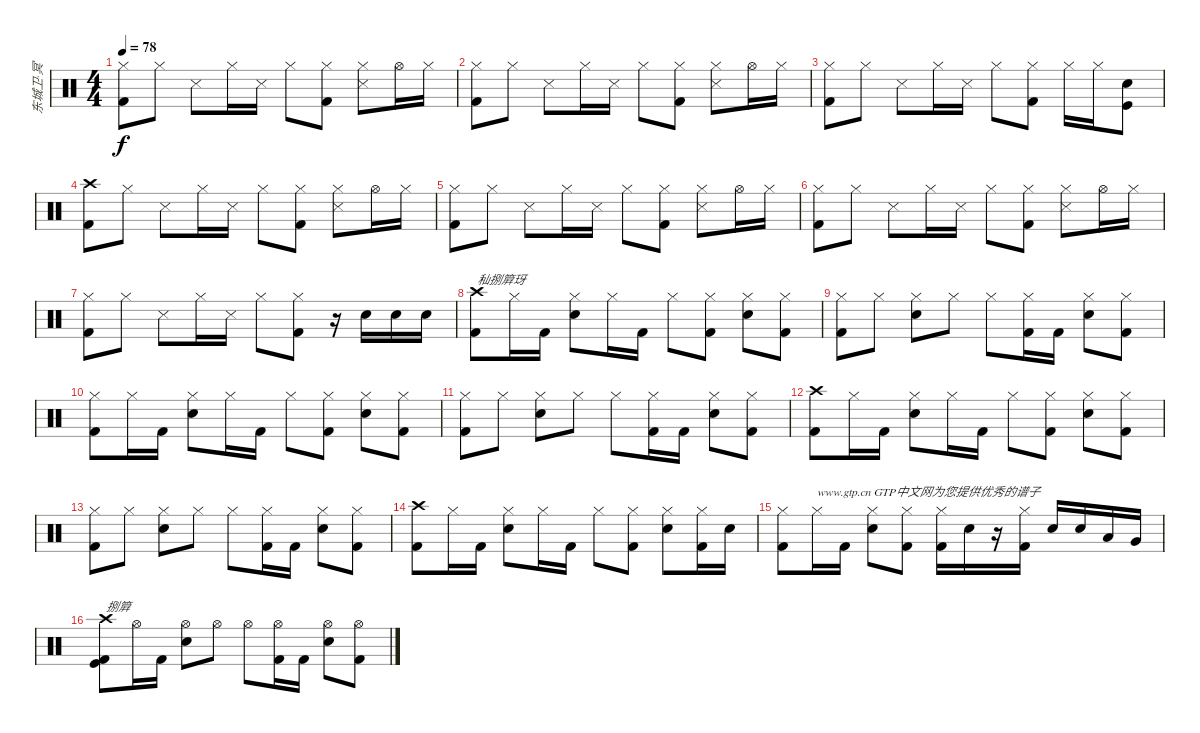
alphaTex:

\track ("东城卫·冥" "东城卫·冥") {instrument percussion}
\staff {score}
\articulation defaults
\ts (4 4)
\tempo 78
\clef neutral
\ks c
("Hi-Hat (closed)" "Kick (hit) 2").8{dy f} "Hi-Hat (closed)".8 "Metronome (hit)".8 "Hi-Hat (closed)".16 "Metronome (hit)".16 "Hi-Hat (closed)".8 ("Hi-Hat (closed)" "Kick (hit) 2").8 ("Hi-Hat (closed)" "Metronome (hit)").8 "Hi-Hat (open)".16 "Hi-Hat (closed)".16 |
("Hi-Hat (closed)" "Kick (hit) 2").8 "Hi-Hat (closed)".8 "Metronome (hit)".8 "Hi-Hat (closed)".16 "Metronome (hit)".16 "Hi-Hat (closed)".8 ("Hi-Hat (closed)" "Kick (hit) 2").8 ("Hi-Hat (closed)" "Metronome (hit)").8 "Hi-Hat (open)".16 "Hi-Hat (closed)".16 |
("Hi-Hat (closed)" "Kick (hit) 2").8 "Hi-Hat (closed)".8 "Metronome (hit)".8 "Hi-Hat (closed)".16 "Metronome (hit)".16 "Hi-Hat (closed)".8 ("Hi-Hat (closed)" "Kick (hit) 2").8 "Hi-Hat (closed)".16 "Hi-Hat (closed)".16 ("Kick (hit)" "Electric Snare (hit)").8 |
("Crash high (hit)" "Kick (hit) 2").8 "Hi-Hat (closed)".8 "Metronome (hit)".8 "Hi-Hat (closed)".16 "Metronome (hit)".16 "Hi-Hat (closed)".8 ("Hi-Hat (closed)" "Kick (hit) 2").8 ("Hi-Hat (closed)" "Metronome (hit)").8 "Hi-Hat (open)".16 "Hi-Hat (closed)".16 |
("Hi-Hat (closed)" "Kick (hit) 2").8 "Hi-Hat (closed)".8 "Metronome (hit)".8 "Hi-Hat (closed)".16 "Metronome (hit)".16 "Hi-Hat (closed)".8 ("Hi-Hat (closed)" "Kick (hit) 2").8 ("Hi-Hat (closed)" "Metronome (hit)").8 "Hi-Hat (open)".16 "Hi-Hat (closed)".16 |
("Hi-Hat (closed)" "Kick (hit) 2").8 "Hi-Hat (closed)".8 "Metronome (hit)".8 "Hi-Hat (closed)".16 "Metronome (hit)".16 "Hi-Hat (closed)".8 ("Hi-Hat (closed)" "Kick (hit) 2").8 ("Hi-Hat (closed)" "Metronome (hit)").8 "Hi-Hat (open)".16 "Hi-Hat (closed)".16 |
("Hi-Hat (closed)" "Kick (hit) 2").8 "Hi-Hat (closed)".8 "Metronome (hit)".8 "Hi-Hat (closed)".16 "Metronome (hit)".16 "Hi-Hat (closed)".8 ("Hi-Hat (closed)" "Kick (hit) 2").8 r.16 "Electric Snare (hit)".16 "Electric Snare (hit)".16 "Electric Snare (hit)".16 |
("Crash high (hit)" "Kick (hit) 2").8{txt "秈捌簈玡"} "Hi-Hat (closed)".16 "Kick (hit) 2".16 ("Hi-Hat (closed)" "Electric Snare (hit)").8 "Hi-Hat (closed)".16 "Kick (hit) 2".16 "Hi-Hat (closed)".8 ("Hi-Hat (closed)" "Kick (hit) 2").8 ("Hi-Hat (closed)" "Electric Snare (hit)").8 ("Hi-Hat (closed)" "Kick (hit) 2").8 |
("Hi-Hat (closed)" "Kick (hit) 2").8 "Hi-Hat (closed)".8 ("Hi-Hat (closed)" "Electric Snare (hit)").8 "Hi-Hat (closed)".8 "Hi-Hat (closed)".8 ("Hi-Hat (closed)" "Kick (hit) 2").16 "Kick (hit) 2".16 ("Hi-Hat (closed)" "Electric Snare (hit)").8 ("Hi-Hat (closed)" "Kick (hit) 2").8 |
("Hi-Hat (closed)" "Kick (hit) 2").8 "Hi-Hat (closed)".16 "Kick (hit) 2".16 ("Hi-Hat (closed)" "Electric Snare (hit)").8 "Hi-Hat (closed)".16 "Kick (hit) 2".16 "Hi-Hat (closed)".8 ("Hi-Hat (closed)" "Kick (hit) 2").8 ("Hi-Hat (closed)" "Electric Snare (hit)").8 ("Hi-Hat (closed)" "Kick (hit) 2").8 |
("Hi-Hat (closed)" "Kick (hit) 2").8 "Hi-Hat (closed)".8 ("Hi-Hat (closed)" "Electric Snare (hit)").8 "Hi-Hat (closed)".8 "Hi-Hat (closed)".8 ("Hi-Hat (closed)" "Kick (hit) 2").16 "Kick (hit) 2".16 ("Hi-Hat (closed)" "Electric Snare (hit)").8 ("Hi-Hat (closed)" "Kick (hit) 2").8 |
("Crash high (hit)" "Kick (hit) 2").8 "Hi-Hat (closed)".16 "Kick (hit) 2".16 ("Hi-Hat (closed)" "Electric Snare (hit)").8 "Hi-Hat (closed)".16 "Kick (hit) 2".16 "Hi-Hat (closed)".8 ("Hi-Hat (closed)" "Kick (hit) 2").8 ("Hi-Hat (closed)" "Electric Snare (hit)").8 ("Hi-Hat (closed)" "Kick (hit) 2").8 |
("Hi-Hat (closed)" "Kick (hit) 2").8 "Hi-Hat (closed)".8 ("Hi-Hat (closed)" "Electric Snare (hit)").8 "Hi-Hat (closed)".8 "Hi-Hat (closed)".8 ("Hi-Hat (closed)" "Kick (hit) 2").16 "Kick (hit) 2".16 ("Hi-Hat (closed)" "Electric Snare (hit)").8 ("Hi-Hat (closed)" "Kick (hit) 2").8 |
("Crash high (hit)" "Kick (hit) 2").8 "Hi-Hat (closed)".16 "Kick (hit) 2".16 ("Hi-Hat (closed)" "Electric Snare (hit)").8 "Hi-Hat (closed)".16 "Kick (hit) 2".16 "Hi-Hat (closed)".8 ("Hi-Hat (closed)" "Kick (hit) 2").8 ("Hi-Hat (closed)" "Electric Snare (hit)").8 ("Hi-Hat (closed)" "Kick (hit) 2").16 "Electric Snare (hit)".16 |
("Hi-Hat (closed)" "Kick (hit) 2").8 "Hi-Hat (closed)".16{txt "www.gtp.cn GTP中文网为您提供优秀的谱子"} "Kick (hit) 2".16 ("Hi-Hat (closed)" "Electric Snare (hit)").8 ("Hi-Hat (closed)" "Kick (hit) 2").8 ("Hi-Hat (closed)" "Kick (hit) 2").16 "Electric Snare (hit)".16 r.16 ("Hi-Hat (closed)" "Kick (hit) 2").16 "Electric Snare (hit)".16 "Electric Snare (hit)".16 "Low Tom (hit)".16 "Very Low Tom (hit)".16 |
("Crash high (hit)" "Kick (hit)" "Kick (hit) 2").8{txt "捌簈"} "Hi-Hat (open)".16 "Kick (hit) 2".16 ("Hi-Hat (open)" "Electric Snare (hit)").8 "Hi-Hat (open)".8 "Hi-Hat (open)".8 ("Hi-Hat (open)" "Kick (hit) 2").16 "Kick (hit) 2".16 ("Hi-Hat (open)" "Electric Snare (hit)").8 ("Hi-Hat (open)" "Kick (hit) 2").8
